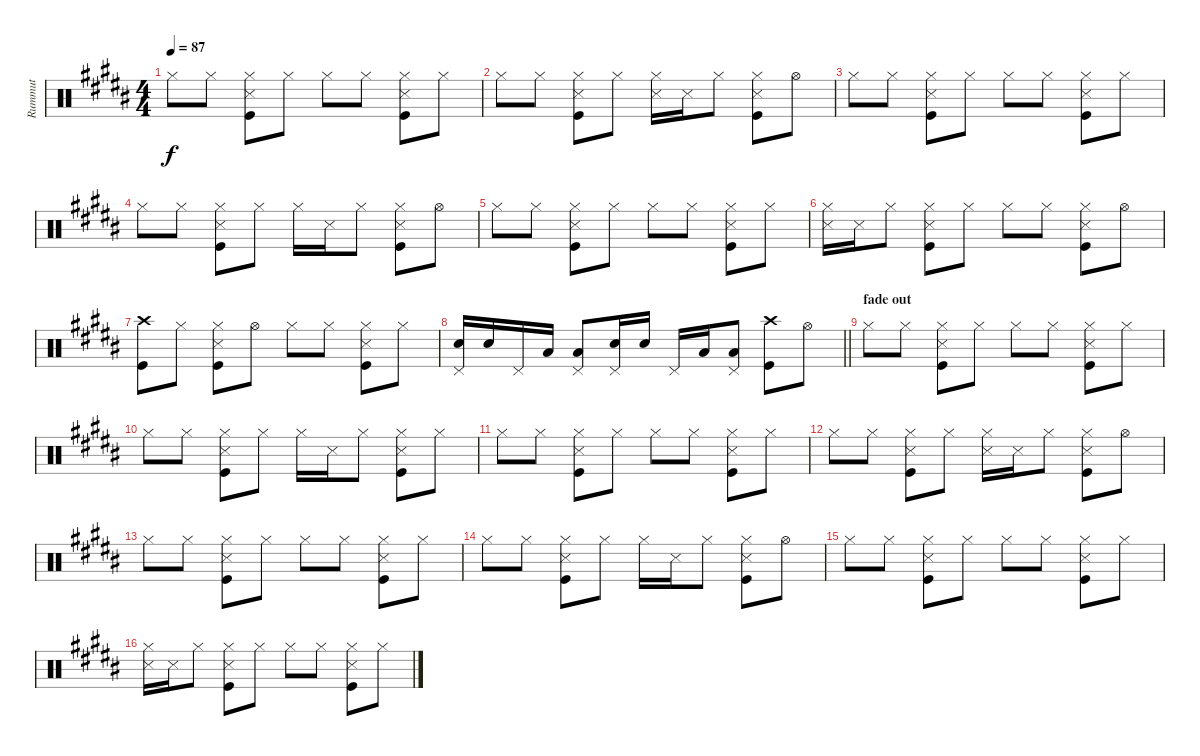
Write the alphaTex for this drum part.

\track ("Rummut" "Rummut") {instrument percussion}
\staff {score}
\articulation defaults
\ts (4 4)
\tempo 87
\clef neutral
\ks g#minor "Hi-Hat (closed)".8{dy f} "Hi-Hat (closed)".8
("Hi-Hat (closed)" "Snare (side stick) 3" "Kick (hit)").8 "Hi-Hat (closed)".8 "Hi-Hat (closed)".8 "Hi-Hat (closed)".8 ("Hi-Hat (closed)" "Snare (side stick) 3" "Kick (hit)").8 "Hi-Hat (closed)".8 |
"Hi-Hat (closed)".8 "Hi-Hat (closed)".8 ("Hi-Hat (closed)" "Snare (side stick) 3" "Kick (hit)").8 "Hi-Hat (closed)".8 ("Hi-Hat (closed)" "Snare (side stick) 3").16 "Snare (side stick) 3".16 "Hi-Hat (closed)".8 ("Hi-Hat (closed)" "Snare (side stick) 3" "Kick (hit)").8 "Hi-Hat (open)".8 |
"Hi-Hat (closed)".8 "Hi-Hat (closed)".8 ("Hi-Hat (closed)" "Snare (side stick) 3" "Kick (hit)").8 "Hi-Hat (closed)".8 "Hi-Hat (closed)".8 "Hi-Hat (closed)".8 ("Hi-Hat (closed)" "Snare (side stick) 3" "Kick (hit)").8 "Hi-Hat (closed)".8 |
"Hi-Hat (closed)".8 "Hi-Hat (closed)".8 ("Hi-Hat (closed)" "Snare (side stick) 3" "Kick (hit)").8 "Hi-Hat (closed)".8 "Hi-Hat (closed)".16 "Snare (side stick) 3".16 "Hi-Hat (closed)".8 ("Hi-Hat (closed)" "Snare (side stick) 3" "Kick (hit)").8 "Hi-Hat (open)".8 |
"Hi-Hat (closed)".8 "Hi-Hat (closed)".8 ("Hi-Hat (closed)" "Snare (side stick) 3" "Kick (hit)").8 "Hi-Hat (closed)".8 "Hi-Hat (closed)".8 "Hi-Hat (closed)".8 ("Hi-Hat (closed)" "Snare (side stick) 3" "Kick (hit)").8 "Hi-Hat (closed)".8 |
("Hi-Hat (closed)" "Snare (side stick) 3").16 "Snare (side stick) 3".16 "Hi-Hat (closed)".8 ("Hi-Hat (closed)" "Snare (side stick) 3" "Kick (hit)").8 "Hi-Hat (closed)".8 "Hi-Hat (closed)".8 "Hi-Hat (closed)".8 ("Hi-Hat (closed)" "Snare (side stick) 3" "Kick (hit)").8 "Hi-Hat (open)".8 |
("Crash high (hit)" "Kick (hit)").8 "Hi-Hat (closed)".8 ("Hi-Hat (closed)" "Snare (side stick) 3" "Kick (hit)").8 "Hi-Hat (open)".8 "Hi-Hat (closed)".8 "Hi-Hat (closed)".8 ("Hi-Hat (closed)" "Snare (side stick) 3" "Kick (hit)").8 "Hi-Hat (closed)".8 |
\barLineRight lightlight
("Pedal Hi-Hat (hit)" "Snare (hit) 2").16 "Snare (hit) 2".16 "Pedal Hi-Hat (hit)".16 "Low Tom (hit)".16 ("Pedal Hi-Hat (hit)" "Low Tom (hit)").8 ("Pedal Hi-Hat (hit)" "Snare (hit) 2").16 "Snare (hit) 2".16 "Pedal Hi-Hat (hit)".16 "Low Tom (hit)".16 ("Pedal Hi-Hat (hit)" "Low Tom (hit)").8 ("Crash high (hit)" "Kick (hit)").8 "Hi-Hat (open)".8 |
\section ("" "fade out")
"Hi-Hat (closed)".8{volume 6} "Hi-Hat (closed)".8 ("Hi-Hat (closed)" "Snare (side stick) 3" "Kick (hit)").8 "Hi-Hat (closed)".8 "Hi-Hat (closed)".8 "Hi-Hat (closed)".8 ("Hi-Hat (closed)" "Snare (side stick) 3" "Kick (hit)").8 "Hi-Hat (closed)".8 |
"Hi-Hat (closed)".8 "Hi-Hat (closed)".8 ("Hi-Hat (closed)" "Snare (side stick) 3" "Kick (hit)").8 "Hi-Hat (closed)".8 "Hi-Hat (closed)".16 "Snare (side stick) 3".16 "Hi-Hat (closed)".8 ("Hi-Hat (closed)" "Snare (side stick) 3" "Kick (hit)").8 "Hi-Hat (closed)".8 |
"Hi-Hat (closed)".8 "Hi-Hat (closed)".8 ("Hi-Hat (closed)" "Snare (side stick) 3" "Kick (hit)").8 "Hi-Hat (closed)".8 "Hi-Hat (closed)".8 "Hi-Hat (closed)".8 ("Hi-Hat (closed)" "Snare (side stick) 3" "Kick (hit)").8 "Hi-Hat (closed)".8 |
"Hi-Hat (closed)".8 "Hi-Hat (closed)".8 ("Hi-Hat (closed)" "Snare (side stick) 3" "Kick (hit)").8 "Hi-Hat (closed)".8 ("Hi-Hat (closed)" "Snare (side stick) 3").16 "Snare (side stick) 3".16 "Hi-Hat (closed)".8 ("Hi-Hat (closed)" "Snare (side stick) 3" "Kick (hit)").8 "Hi-Hat (open)".8 |
"Hi-Hat (closed)".8{volume 0} "Hi-Hat (closed)".8 ("Hi-Hat (closed)" "Snare (side stick) 3" "Kick (hit)").8 "Hi-Hat (closed)".8 "Hi-Hat (closed)".8 "Hi-Hat (closed)".8 ("Hi-Hat (closed)" "Snare (side stick) 3" "Kick (hit)").8 "Hi-Hat (closed)".8 |
"Hi-Hat (closed)".8 "Hi-Hat (closed)".8 ("Hi-Hat (closed)" "Snare (side stick) 3" "Kick (hit)").8 "Hi-Hat (closed)".8 "Hi-Hat (closed)".16 "Snare (side stick) 3".16 "Hi-Hat (closed)".8 ("Hi-Hat (closed)" "Snare (side stick) 3" "Kick (hit)").8 "Hi-Hat (open)".8 |
"Hi-Hat (closed)".8 "Hi-Hat (closed)".8 ("Hi-Hat (closed)" "Snare (side stick) 3" "Kick (hit)").8 "Hi-Hat (closed)".8 "Hi-Hat (closed)".8 "Hi-Hat (closed)".8 ("Hi-Hat (closed)" "Snare (side stick) 3" "Kick (hit)").8 "Hi-Hat (closed)".8 |
("Hi-Hat (closed)" "Snare (side stick) 3").16 "Snare (side stick) 3".16 "Hi-Hat (closed)".8 ("Hi-Hat (closed)" "Snare (side stick) 3" "Kick (hit)").8 "Hi-Hat (closed)".8 "Hi-Hat (closed)".8 "Hi-Hat (closed)".8 ("Hi-Hat (closed)" "Snare (side stick) 3" "Kick (hit)").8 "Hi-Hat (closed)".8
